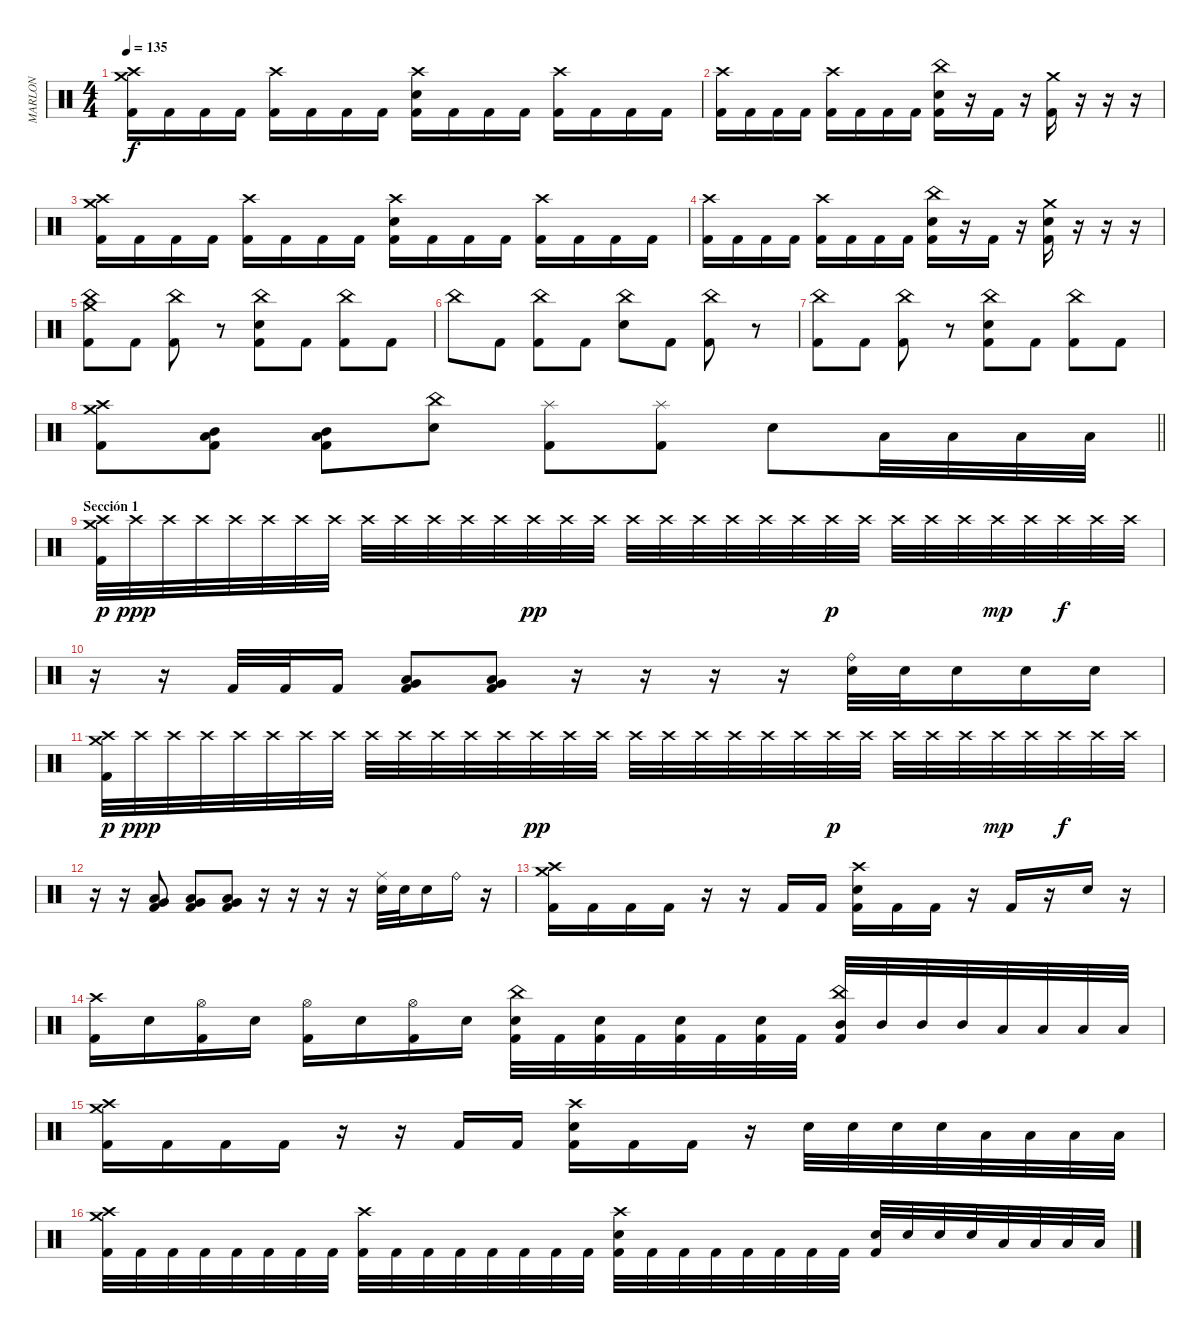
\track ("MARLON" "MARLON") {instrument percussion}
\staff {score}
\articulation defaults
\ts (4 4)
\tempo 135
\clef neutral
\ks c
("Crash high (hit)" "Crash medium (hit)" "Kick (hit) 2").16{dy f} "Kick (hit) 2".16 "Kick (hit) 2".16 "Kick (hit) 2".16 ("Crash high (hit)" "Kick (hit) 2").16 "Kick (hit) 2".16 "Kick (hit) 2".16 "Kick (hit) 2".16 ("Crash high (hit)" "Electric Snare (hit)" "Kick (hit) 2").16 "Kick (hit) 2".16 "Kick (hit) 2".16 "Kick (hit) 2".16 ("Crash high (hit)" "Kick (hit) 2").16 "Kick (hit) 2".16 "Kick (hit) 2".16 "Kick (hit) 2".16 |
("Crash high (hit)" "Kick (hit) 2").16 "Kick (hit) 2".16 "Kick (hit) 2".16 "Kick (hit) 2".16 ("Crash high (hit)" "Kick (hit) 2").16 "Kick (hit) 2".16 "Kick (hit) 2".16 "Kick (hit) 2".16 ("China (hit)" "Electric Snare (hit)" "Kick (hit) 2").16 r.16 "Kick (hit) 2".16 r.16 ("Crash medium (hit)" "Kick (hit) 2").16 r.16 r.16 r.16 |
("Crash high (hit)" "Crash medium (hit)" "Kick (hit) 2").16 "Kick (hit) 2".16 "Kick (hit) 2".16 "Kick (hit) 2".16 ("Crash high (hit)" "Kick (hit) 2").16 "Kick (hit) 2".16 "Kick (hit) 2".16 "Kick (hit) 2".16 ("Crash high (hit)" "Electric Snare (hit)" "Kick (hit) 2").16 "Kick (hit) 2".16 "Kick (hit) 2".16 "Kick (hit) 2".16 ("Crash high (hit)" "Kick (hit) 2").16 "Kick (hit) 2".16 "Kick (hit) 2".16 "Kick (hit) 2".16 |
("Crash high (hit)" "Kick (hit) 2").16 "Kick (hit) 2".16 "Kick (hit) 2".16 "Kick (hit) 2".16 ("Crash high (hit)" "Kick (hit) 2").16 "Kick (hit) 2".16 "Kick (hit) 2".16 "Kick (hit) 2".16 ("China (hit)" "Electric Snare (hit)" "Kick (hit) 2").16 r.16 "Kick (hit) 2".16 r.16 ("Crash medium (hit)" "Electric Snare (hit)" "Kick (hit) 2").16 r.16 r.16 r.16 |
("China (hit)" "Crash medium (hit)" "Kick (hit) 2").8 "Kick (hit) 2".8 ("China (hit)" "Kick (hit) 2").8 r.8 ("China (hit)" "Electric Snare (hit)" "Kick (hit) 2").8 "Kick (hit) 2".8 ("China (hit)" "Kick (hit) 2").8 "Kick (hit) 2".8 |
"China (hit)".8 "Kick (hit) 2".8 ("China (hit)" "Kick (hit) 2").8 "Kick (hit) 2".8 ("China (hit)" "Electric Snare (hit)").8 "Kick (hit) 2".8 ("China (hit)" "Kick (hit) 2").8 r.8 |
("China (hit)" "Kick (hit) 2").8 "Kick (hit) 2".8 ("China (hit)" "Kick (hit) 2").8 r.8 ("China (hit)" "Electric Snare (hit)" "Kick (hit) 2").8 "Kick (hit) 2".8 ("China (hit)" "Kick (hit) 2").8 "Kick (hit) 2".8 |
\barLineRight lightlight
("Crash medium (hit)" "Crash high (hit)" "Kick (hit) 2").8 ("Low Tom (hit)" "Mid Tom (hit)" "Kick (hit) 2").8 ("Low Tom (hit)" "Mid Tom (hit)" "Kick (hit) 2").8 ("China (hit)" "Electric Snare (hit)").8 ("Splash (hit)" "Kick (hit) 2").8 ("Splash (hit)" "Kick (hit) 2").8 "Electric Snare (hit)".8 "Low Tom (hit)".32 "Low Tom (hit)".32 "Low Tom (hit)".32 "Low Tom (hit)".32 |
\section ("" "Sección 1")
("Crash high (hit)" "Crash medium (hit)" "Kick (hit) 2").32{dy p} "Crash high (hit)".32{dy ppp} "Crash high (hit)".32 "Crash high (hit)".32 "Crash high (hit)".32 "Crash high (hit)".32 "Crash high (hit)".32 "Crash high (hit)".32 "Crash high (hit)".32 "Crash high (hit)".32 "Crash high (hit)".32 "Crash high (hit)".32 "Crash high (hit)".32 "Crash high (hit)".32{dy pp} "Crash high (hit)".32 "Crash high (hit)".32 "Crash high (hit)".32 "Crash high (hit)".32 "Crash high (hit)".32 "Crash high (hit)".32 "Crash high (hit)".32 "Crash high (hit)".32 "Crash high (hit)".32{dy p} "Crash high (hit)".32 "Crash high (hit)".32 "Crash high (hit)".32 "Crash high (hit)".32 "Crash high (hit)".32{dy mp} "Crash high (hit)".32 "Crash high (hit)".32{dy f} "Crash high (hit)".32 "Crash high (hit)".32 |
r.16 r.16 "Kick (hit) 2".32 "Kick (hit) 2".32 "Kick (hit) 2".16 ("Kick (hit) 2" "Low Tom (hit)" "Very Low Tom (hit)").8 ("Kick (hit) 2" "Low Tom (hit)" "Very Low Tom (hit)").8 r.16 r.16 r.16 r.16 ("Ride (bell)" "Electric Snare (hit)").32 "Electric Snare (hit)".32 "Electric Snare (hit)".16 "Electric Snare (hit)".16 "Electric Snare (hit)".16 |
("Crash high (hit)" "Crash medium (hit)" "Kick (hit) 2").32{dy p} "Crash high (hit)".32{dy ppp} "Crash high (hit)".32 "Crash high (hit)".32 "Crash high (hit)".32 "Crash high (hit)".32 "Crash high (hit)".32 "Crash high (hit)".32 "Crash high (hit)".32 "Crash high (hit)".32 "Crash high (hit)".32 "Crash high (hit)".32 "Crash high (hit)".32 "Crash high (hit)".32{dy pp} "Crash high (hit)".32 "Crash high (hit)".32 "Crash high (hit)".32 "Crash high (hit)".32 "Crash high (hit)".32 "Crash high (hit)".32 "Crash high (hit)".32 "Crash high (hit)".32 "Crash high (hit)".32{dy p} "Crash high (hit)".32 "Crash high (hit)".32 "Crash high (hit)".32 "Crash high (hit)".32 "Crash high (hit)".32{dy mp} "Crash high (hit)".32 "Crash high (hit)".32{dy f} "Crash high (hit)".32 "Crash high (hit)".32 |
r.16 r.16 ("Kick (hit) 2" "Low Tom (hit)" "Very Low Tom (hit)").8 ("Kick (hit) 2" "Low Tom (hit)" "Very Low Tom (hit)").8 ("Kick (hit) 2" "Low Tom (hit)" "Very Low Tom (hit)").8 r.16 r.16 r.16 r.16 ("Ride (middle)" "Electric Snare (hit)").32 "Electric Snare (hit)".32 "Electric Snare (hit)".16 "Ride (bell)".16 r.16 |
("Crash high (hit)" "Crash medium (hit)" "Kick (hit) 2").16 "Kick (hit) 2".16 "Kick (hit) 2".16 "Kick (hit) 2".16 r.16 r.16 "Kick (hit) 2".16 "Kick (hit) 2".16 ("Crash high (hit)" "Electric Snare (hit)" "Kick (hit) 2").16 "Kick (hit) 2".16 "Kick (hit) 2".16 r.16 "Kick (hit) 2".16 r.16 "Electric Snare (hit)".16 r.16 |
("Crash high (hit)" "Kick (hit) 2").16 "Electric Snare (hit)".16 ("Hi-Hat (open)" "Kick (hit) 2").16 "Electric Snare (hit)".16 ("Hi-Hat (open)" "Kick (hit) 2").16 "Electric Snare (hit)".16 ("Hi-Hat (open)" "Kick (hit) 2").16 "Electric Snare (hit)".16 ("China (hit)" "Electric Snare (hit)" "Kick (hit) 2").32 "Kick (hit) 2".32 ("Electric Snare (hit)" "Kick (hit) 2").32 "Kick (hit) 2".32 ("Electric Snare (hit)" "Kick (hit) 2").32 "Kick (hit) 2".32 ("Electric Snare (hit)" "Kick (hit) 2").32 "Kick (hit) 2".32 ("China (hit)" "Mid Tom (hit)" "Kick (hit) 2").32 "Mid Tom (hit)".32 "Mid Tom (hit)".32 "Mid Tom (hit)".32 "Low Tom (hit)".32 "Low Tom (hit)".32 "Low Tom (hit)".32 "Low Tom (hit)".32 |
("Crash high (hit)" "Crash medium (hit)" "Kick (hit) 2").16 "Kick (hit) 2".16 "Kick (hit) 2".16 "Kick (hit) 2".16 r.16 r.16 "Kick (hit) 2".16 "Kick (hit) 2".16 ("Crash high (hit)" "Electric Snare (hit)" "Kick (hit) 2").16 "Kick (hit) 2".16 "Kick (hit) 2".16 r.16 "Electric Snare (hit)".32 "Electric Snare (hit)".32 "Electric Snare (hit)".32 "Electric Snare (hit)".32 "Low Tom (hit)".32 "Low Tom (hit)".32 "Low Tom (hit)".32 "Low Tom (hit)".32 |
("Crash high (hit)" "Crash medium (hit)" "Kick (hit) 2").32 "Kick (hit) 2".32 "Kick (hit) 2".32 "Kick (hit) 2".32 "Kick (hit) 2".32 "Kick (hit) 2".32 "Kick (hit) 2".32 "Kick (hit) 2".32 ("Crash high (hit)" "Kick (hit) 2").32 "Kick (hit) 2".32 "Kick (hit) 2".32 "Kick (hit) 2".32 "Kick (hit) 2".32 "Kick (hit) 2".32 "Kick (hit) 2".32 "Kick (hit) 2".32 ("Crash high (hit)" "Electric Snare (hit)" "Kick (hit) 2").32 "Kick (hit) 2".32 "Kick (hit) 2".32 "Kick (hit) 2".32 "Kick (hit) 2".32 "Kick (hit) 2".32 "Kick (hit) 2".32 "Kick (hit) 2".32 ("Electric Snare (hit)" "Kick (hit) 2").32 "Electric Snare (hit)".32 "Electric Snare (hit)".32 "Electric Snare (hit)".32 "Low Tom (hit)".32 "Low Tom (hit)".32 "Low Tom (hit)".32 "Low Tom (hit)".32
